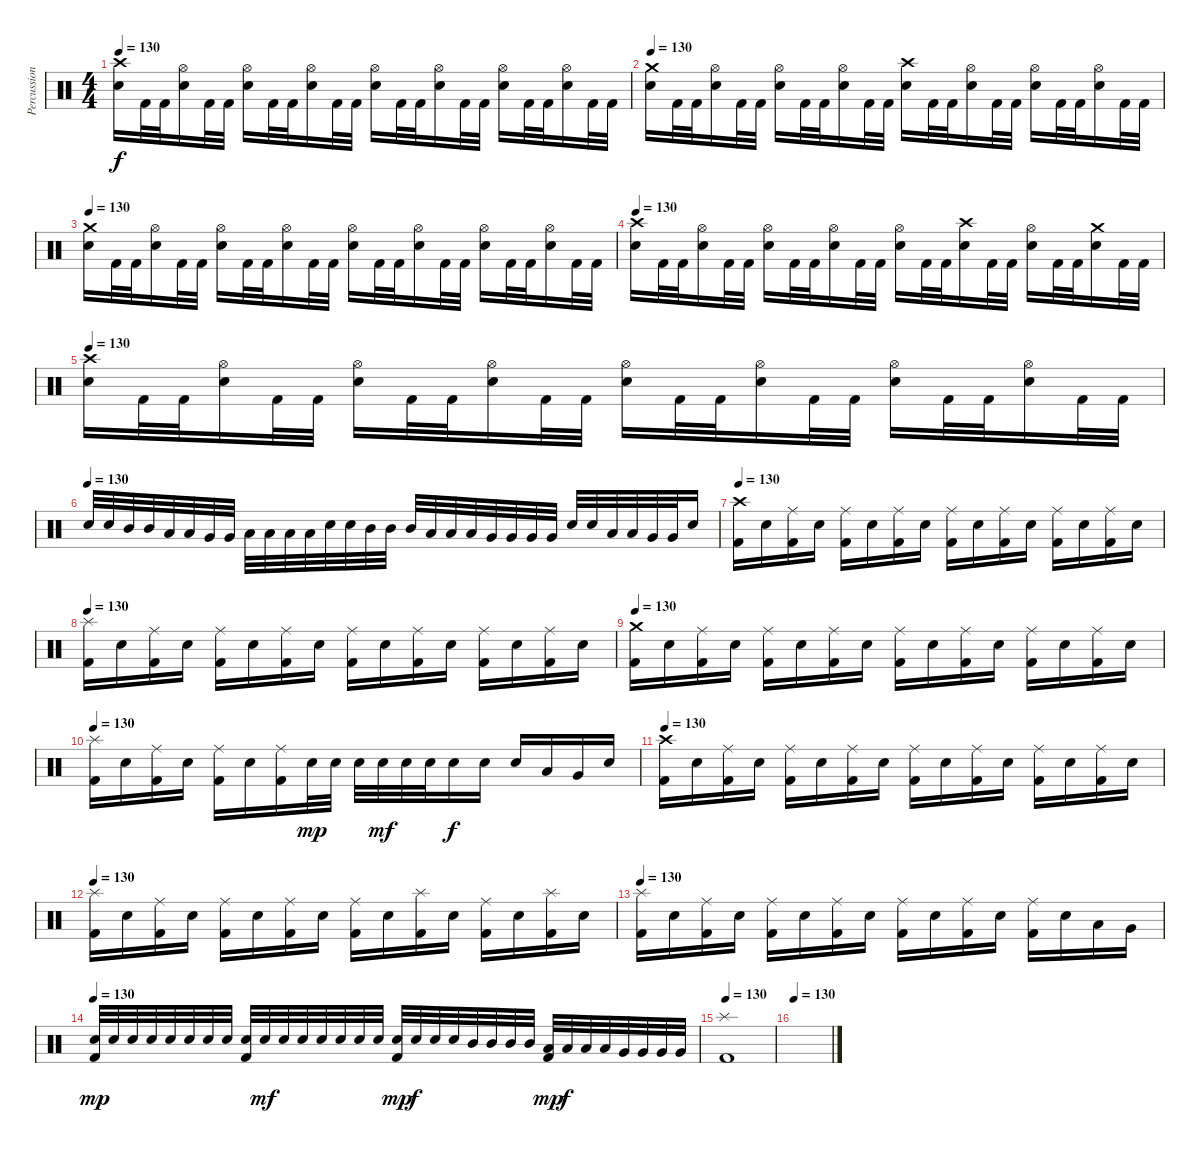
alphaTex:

\track ("Percussion" "Percussion") {instrument percussion}
\staff {score}
\articulation defaults
\ts (4 4)
\tempo 130
\clef neutral
\ks c
("Crash high (hit)" "Electric Snare (hit)").16{dy f} "Kick (hit) 2".32 "Kick (hit) 2".32 ("Hi-Hat (open)" "Electric Snare (hit)").16 "Kick (hit) 2".32 "Kick (hit) 2".32 ("Hi-Hat (open)" "Electric Snare (hit)").16 "Kick (hit) 2".32 "Kick (hit) 2".32 ("Hi-Hat (open)" "Electric Snare (hit)").16 "Kick (hit) 2".32 "Kick (hit) 2".32 ("Hi-Hat (open)" "Electric Snare (hit)").16 "Kick (hit) 2".32 "Kick (hit) 2".32 ("Hi-Hat (open)" "Electric Snare (hit)").16 "Kick (hit) 2".32 "Kick (hit) 2".32 ("Hi-Hat (open)" "Electric Snare (hit)").16 "Kick (hit) 2".32 "Kick (hit) 2".32 ("Hi-Hat (open)" "Electric Snare (hit)").16 "Kick (hit) 2".32 "Kick (hit) 2".32 |
\tempo 130
("Crash medium (hit)" "Electric Snare (hit)").16 "Kick (hit) 2".32 "Kick (hit) 2".32 ("Hi-Hat (open)" "Electric Snare (hit)").16 "Kick (hit) 2".32 "Kick (hit) 2".32 ("Hi-Hat (open)" "Electric Snare (hit)").16 "Kick (hit) 2".32 "Kick (hit) 2".32 ("Hi-Hat (open)" "Electric Snare (hit)").16 "Kick (hit) 2".32 "Kick (hit) 2".32 ("Crash high (hit)" "Electric Snare (hit)").16 "Kick (hit) 2".32 "Kick (hit) 2".32 ("Hi-Hat (open)" "Electric Snare (hit)").16 "Kick (hit) 2".32 "Kick (hit) 2".32 ("Hi-Hat (open)" "Electric Snare (hit)").16 "Kick (hit) 2".32 "Kick (hit) 2".32 ("Hi-Hat (open)" "Electric Snare (hit)").16 "Kick (hit) 2".32 "Kick (hit) 2".32 |
\tempo 130
("Crash medium (hit)" "Electric Snare (hit)").16 "Kick (hit) 2".32 "Kick (hit) 2".32 ("Hi-Hat (open)" "Electric Snare (hit)").16 "Kick (hit) 2".32 "Kick (hit) 2".32 ("Hi-Hat (open)" "Electric Snare (hit)").16 "Kick (hit) 2".32 "Kick (hit) 2".32 ("Hi-Hat (open)" "Electric Snare (hit)").16 "Kick (hit) 2".32 "Kick (hit) 2".32 ("Hi-Hat (open)" "Electric Snare (hit)").16 "Kick (hit) 2".32 "Kick (hit) 2".32 ("Hi-Hat (open)" "Electric Snare (hit)").16 "Kick (hit) 2".32 "Kick (hit) 2".32 ("Hi-Hat (open)" "Electric Snare (hit)").16 "Kick (hit) 2".32 "Kick (hit) 2".32 ("Hi-Hat (open)" "Electric Snare (hit)").16 "Kick (hit) 2".32 "Kick (hit) 2".32 |
\tempo 130
("Crash high (hit)" "Electric Snare (hit)").16 "Kick (hit) 2".32 "Kick (hit) 2".32 ("Hi-Hat (open)" "Electric Snare (hit)").16 "Kick (hit) 2".32 "Kick (hit) 2".32 ("Hi-Hat (open)" "Electric Snare (hit)").16 "Kick (hit) 2".32 "Kick (hit) 2".32 ("Hi-Hat (open)" "Electric Snare (hit)").16 "Kick (hit) 2".32 "Kick (hit) 2".32 ("Hi-Hat (open)" "Electric Snare (hit)").16 "Kick (hit) 2".32 "Kick (hit) 2".32 ("Crash high (hit)" "Electric Snare (hit)").16 "Kick (hit) 2".32 "Kick (hit) 2".32 ("Hi-Hat (open)" "Electric Snare (hit)").16 "Kick (hit) 2".32 "Kick (hit) 2".32 ("Crash medium (hit)" "Electric Snare (hit)").16 "Kick (hit) 2".32 "Kick (hit) 2".32 |
\tempo 130
("Crash high (hit)" "Electric Snare (hit)").16 "Kick (hit) 2".32 "Kick (hit) 2".32 ("Hi-Hat (open)" "Electric Snare (hit)").16 "Kick (hit) 2".32 "Kick (hit) 2".32 ("Hi-Hat (open)" "Electric Snare (hit)").16 "Kick (hit) 2".32 "Kick (hit) 2".32 ("Hi-Hat (open)" "Electric Snare (hit)").16 "Kick (hit) 2".32 "Kick (hit) 2".32 ("Hi-Hat (open)" "Electric Snare (hit)").16 "Kick (hit) 2".32 "Kick (hit) 2".32 ("Hi-Hat (open)" "Electric Snare (hit)").16 "Kick (hit) 2".32 "Kick (hit) 2".32 ("Hi-Hat (open)" "Electric Snare (hit)").16 "Kick (hit) 2".32 "Kick (hit) 2".32 ("Hi-Hat (open)" "Electric Snare (hit)").16 "Kick (hit) 2".32 "Kick (hit) 2".32 |
\tempo (130)
"Electric Snare (hit)".32 "Electric Snare (hit)".32 "Mid Tom (hit)".32 "Mid Tom (hit)".32 "Low Tom (hit)".32 "Low Tom (hit)".32 "Very Low Tom (hit)".32 "Very Low Tom (hit)".32 "Low Floor Tom (hit)".32 "Low Floor Tom (hit)".32 "Low Floor Tom (hit)".32 "Low Floor Tom (hit)".32 "Electric Snare (hit)".32 "Electric Snare (hit)".32 "Mid Tom (hit)".32 "Mid Tom (hit)".32 "Mid Tom (hit)".32 "Low Tom (hit)".32 "Low Tom (hit)".32 "Low Tom (hit)".32 "Very Low Tom (hit)".32 "Very Low Tom (hit)".32 "Very Low Tom (hit)".32 "Very Low Tom (hit)".32 "Electric Snare (hit)".32 "Electric Snare (hit)".32 "Low Tom (hit)".32 "Low Tom (hit)".32 "Very Low Tom (hit)".32 "Very Low Tom (hit)".32 "Electric Snare (hit)".16 |
\tempo 130
("Crash high (hit)" "Kick (hit) 2").16 "Electric Snare (hit)".16 ("Ride (middle)" "Kick (hit) 2").16 "Electric Snare (hit)".16 ("Ride (middle)" "Kick (hit) 2").16 "Electric Snare (hit)".16 ("Ride (middle)" "Kick (hit) 2").16 "Electric Snare (hit)".16 ("Ride (middle)" "Kick (hit) 2").16 "Electric Snare (hit)".16 ("Ride (middle)" "Kick (hit) 2").16 "Electric Snare (hit)".16 ("Ride (middle)" "Kick (hit) 2").16 "Electric Snare (hit)".16 ("Ride (middle)" "Kick (hit) 2").16 "Electric Snare (hit)".16 |
\tempo 130
("Splash (hit)" "Kick (hit) 2").16 "Electric Snare (hit)".16 ("Ride (middle)" "Kick (hit) 2").16 "Electric Snare (hit)".16 ("Ride (middle)" "Kick (hit) 2").16 "Electric Snare (hit)".16 ("Ride (middle)" "Kick (hit) 2").16 "Electric Snare (hit)".16 ("Ride (middle)" "Kick (hit) 2").16 "Electric Snare (hit)".16 ("Ride (middle)" "Kick (hit) 2").16 "Electric Snare (hit)".16 ("Ride (middle)" "Kick (hit) 2").16 "Electric Snare (hit)".16 ("Ride (middle)" "Kick (hit) 2").16 "Electric Snare (hit)".16 |
\tempo 130
("Crash medium (hit)" "Kick (hit) 2").16 "Electric Snare (hit)".16 ("Ride (middle)" "Kick (hit) 2").16 "Electric Snare (hit)".16 ("Ride (middle)" "Kick (hit) 2").16 "Electric Snare (hit)".16 ("Ride (middle)" "Kick (hit) 2").16 "Electric Snare (hit)".16 ("Ride (middle)" "Kick (hit) 2").16 "Electric Snare (hit)".16 ("Ride (middle)" "Kick (hit) 2").16 "Electric Snare (hit)".16 ("Ride (middle)" "Kick (hit) 2").16 "Electric Snare (hit)".16 ("Ride (middle)" "Kick (hit) 2").16 "Electric Snare (hit)".16 |
\tempo 130
("Splash (hit)" "Kick (hit) 2").16 "Electric Snare (hit)".16 ("Ride (middle)" "Kick (hit) 2").16 "Electric Snare (hit)".16 ("Ride (middle)" "Kick (hit) 2").16 "Electric Snare (hit)".16 ("Ride (middle)" "Kick (hit) 2").16 "Electric Snare (hit)".32{dy mp} "Electric Snare (hit)".32 "Electric Snare (hit)".32 "Electric Snare (hit)".32{dy mf} "Electric Snare (hit)".32 "Electric Snare (hit)".32 "Electric Snare (hit)".16{dy f} "Electric Snare (hit)".16 "Electric Snare (hit)".16 "Low Tom (hit)".16 "Very Low Tom (hit)".16 "Electric Snare (hit)".16 |
\tempo 130
("Crash high (hit)" "Kick (hit) 2").16 "Electric Snare (hit)".16 ("Ride (middle)" "Kick (hit) 2").16 "Electric Snare (hit)".16 ("Ride (middle)" "Kick (hit) 2").16 "Electric Snare (hit)".16 ("Ride (middle)" "Kick (hit) 2").16 "Electric Snare (hit)".16 ("Ride (middle)" "Kick (hit) 2").16 "Electric Snare (hit)".16 ("Ride (middle)" "Kick (hit) 2").16 "Electric Snare (hit)".16 ("Ride (middle)" "Kick (hit) 2").16 "Electric Snare (hit)".16 ("Ride (middle)" "Kick (hit) 2").16 "Electric Snare (hit)".16 |
\tempo 130
("Splash (hit)" "Kick (hit) 2").16 "Electric Snare (hit)".16 ("Ride (middle)" "Kick (hit) 2").16 "Electric Snare (hit)".16 ("Ride (middle)" "Kick (hit) 2").16 "Electric Snare (hit)".16 ("Ride (middle)" "Kick (hit) 2").16 "Electric Snare (hit)".16 ("Ride (middle)" "Kick (hit) 2").16 "Electric Snare (hit)".16 ("Splash (hit)" "Kick (hit) 2").16 "Electric Snare (hit)".16 ("Ride (middle)" "Kick (hit) 2").16 "Electric Snare (hit)".16 ("Splash (hit)" "Kick (hit) 2").16 "Electric Snare (hit)".16 |
\tempo 130
("Splash (hit)" "Kick (hit) 2").16 "Electric Snare (hit)".16 ("Ride (middle)" "Kick (hit) 2").16 "Electric Snare (hit)".16 ("Ride (middle)" "Kick (hit) 2").16 "Electric Snare (hit)".16 ("Ride (middle)" "Kick (hit) 2").16 "Electric Snare (hit)".16 ("Ride (middle)" "Kick (hit) 2").16 "Electric Snare (hit)".16 ("Ride (middle)" "Kick (hit) 2").16 "Electric Snare (hit)".16 ("Ride (middle)" "Kick (hit) 2").16 "Electric Snare (hit)".16 "Low Tom (hit)".16 "Very Low Tom (hit)".16 |
\tempo 130
("Electric Snare (hit)" "Kick (hit) 2").32{dy mp} "Electric Snare (hit)".32 "Electric Snare (hit)".32 "Electric Snare (hit)".32 "Electric Snare (hit)".32 "Electric Snare (hit)".32 "Electric Snare (hit)".32 "Electric Snare (hit)".32 ("Electric Snare (hit)" "Kick (hit) 2").32 "Electric Snare (hit)".32{dy mf} "Electric Snare (hit)".32 "Electric Snare (hit)".32 "Electric Snare (hit)".32 "Electric Snare (hit)".32 "Electric Snare (hit)".32 "Electric Snare (hit)".32 ("Electric Snare (hit)" "Kick (hit) 2").32{dy mp} "Electric Snare (hit)".32{dy f} "Electric Snare (hit)".32 "Electric Snare (hit)".32 "Mid Tom (hit)".32 "Mid Tom (hit)".32 "Mid Tom (hit)".32 "Mid Tom (hit)".32 ("Low Tom (hit)" "Kick (hit) 2").32{dy mp} "Low Tom (hit)".32{dy f} "Low Tom (hit)".32 "Low Tom (hit)".32 "Very Low Tom (hit)".32 "Very Low Tom (hit)".32 "Very Low Tom (hit)".32 "Very Low Tom (hit)".32 |
\tempo 130
("Splash (hit)" "Kick (hit) 2").1 |
\tempo 130
